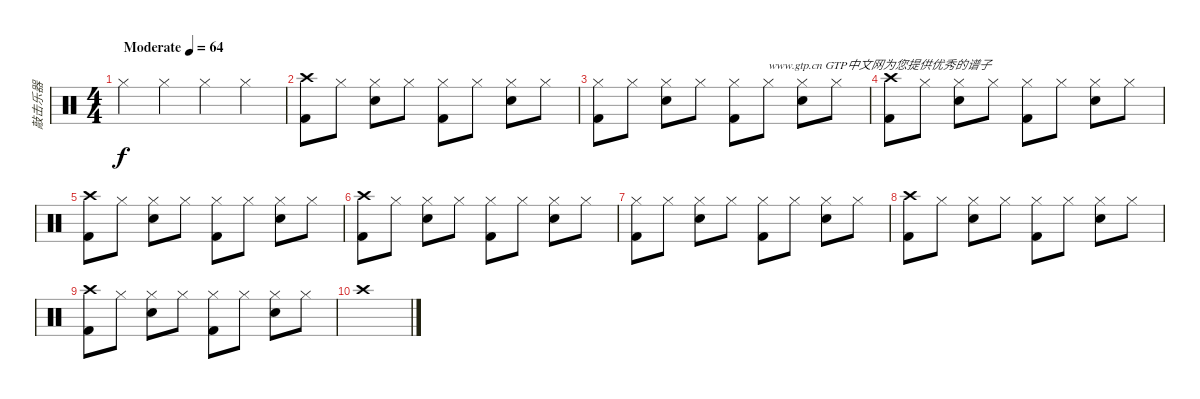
\track ("敲击乐器" "敲击乐器") {instrument percussion}
\staff {score}
\articulation defaults
\ts (4 4)
\tempo (64 "Moderate")
\clef neutral
\ks c "Hi-Hat (closed)".4{dy f} "Hi-Hat (closed)".4 "Hi-Hat (closed)".4 "Hi-Hat (closed)".4
|
("Kick (hit) 2" "Crash high (hit)").8 "Hi-Hat (closed)".8 ("Snare (hit) 2" "Hi-Hat (closed)").8 "Hi-Hat (closed)".8 ("Kick (hit) 2" "Hi-Hat (closed)").8 "Hi-Hat (closed)".8 ("Snare (hit) 2" "Hi-Hat (closed)").8 "Hi-Hat (closed)".8 |
("Kick (hit) 2" "Hi-Hat (closed)").8 "Hi-Hat (closed)".8 ("Snare (hit) 2" "Hi-Hat (closed)").8 "Hi-Hat (closed)".8 ("Kick (hit) 2" "Hi-Hat (closed)").8 "Hi-Hat (closed)".8{txt "www.gtp.cn GTP中文网为您提供优秀的谱子"} ("Snare (hit) 2" "Hi-Hat (closed)").8 "Hi-Hat (closed)".8 |
("Kick (hit) 2" "Crash high (hit)").8 "Hi-Hat (closed)".8 ("Snare (hit) 2" "Hi-Hat (closed)").8 "Hi-Hat (closed)".8 ("Kick (hit) 2" "Hi-Hat (closed)").8 "Hi-Hat (closed)".8 ("Snare (hit) 2" "Hi-Hat (closed)").8 "Hi-Hat (closed)".8 |
("Kick (hit) 2" "Crash high (hit)").8 "Hi-Hat (closed)".8 ("Snare (hit) 2" "Hi-Hat (closed)").8 "Hi-Hat (closed)".8 ("Kick (hit) 2" "Hi-Hat (closed)").8 "Hi-Hat (closed)".8 ("Snare (hit) 2" "Hi-Hat (closed)").8 "Hi-Hat (closed)".8 |
("Kick (hit) 2" "Crash high (hit)").8 "Hi-Hat (closed)".8 ("Snare (hit) 2" "Hi-Hat (closed)").8 "Hi-Hat (closed)".8 ("Kick (hit) 2" "Hi-Hat (closed)").8 "Hi-Hat (closed)".8 ("Snare (hit) 2" "Hi-Hat (closed)").8 "Hi-Hat (closed)".8 |
("Kick (hit) 2" "Hi-Hat (closed)").8 "Hi-Hat (closed)".8 ("Snare (hit) 2" "Hi-Hat (closed)").8 "Hi-Hat (closed)".8 ("Kick (hit) 2" "Hi-Hat (closed)").8 "Hi-Hat (closed)".8 ("Snare (hit) 2" "Hi-Hat (closed)").8 "Hi-Hat (closed)".8 |
("Kick (hit) 2" "Crash high (hit)").8 "Hi-Hat (closed)".8 ("Snare (hit) 2" "Hi-Hat (closed)").8 "Hi-Hat (closed)".8 ("Kick (hit) 2" "Hi-Hat (closed)").8 "Hi-Hat (closed)".8 ("Snare (hit) 2" "Hi-Hat (closed)").8 "Hi-Hat (closed)".8 |
("Kick (hit) 2" "Crash high (hit)").8 "Hi-Hat (closed)".8 ("Snare (hit) 2" "Hi-Hat (closed)").8 "Hi-Hat (closed)".8 ("Kick (hit) 2" "Hi-Hat (closed)").8 "Hi-Hat (closed)".8 ("Snare (hit) 2" "Hi-Hat (closed)").8 "Hi-Hat (closed)".8 |
"Crash high (hit)".1
